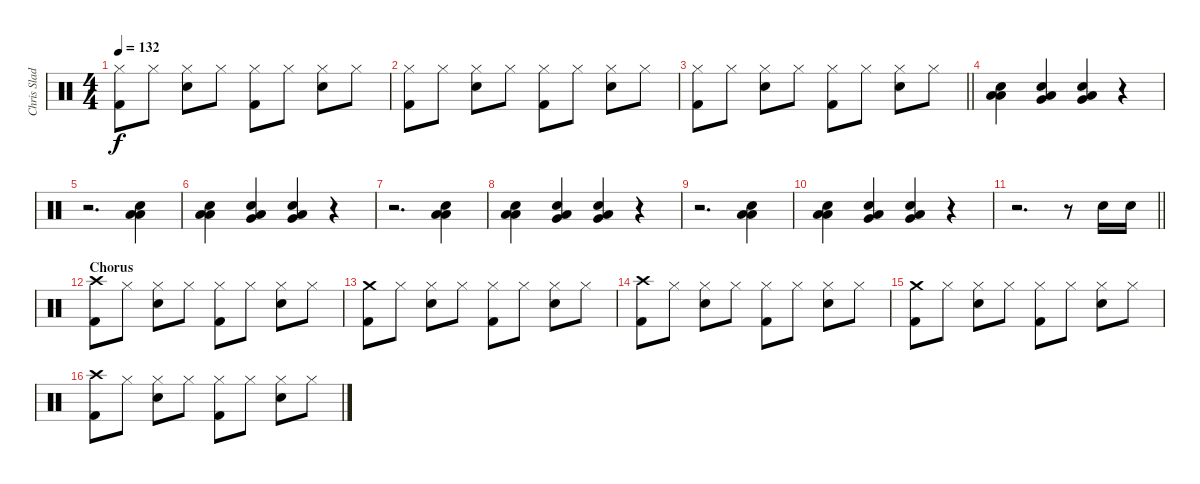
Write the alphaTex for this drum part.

\track ("Chris Slade" "Chris Slad") {instrument percussion}
\staff {score}
\articulation defaults
\ts (4 4)
\tempo 132
\clef neutral
\ks c
("Kick (hit) 2" "Hi-Hat (closed)").8{dy f} "Hi-Hat (closed)".8 ("Snare (hit) 2" "Hi-Hat (closed)").8 "Hi-Hat (closed)".8 ("Kick (hit) 2" "Hi-Hat (closed)").8 "Hi-Hat (closed)".8 ("Snare (hit) 2" "Hi-Hat (closed)").8 "Hi-Hat (closed)".8 |
("Kick (hit) 2" "Hi-Hat (closed)").8 "Hi-Hat (closed)".8 ("Snare (hit) 2" "Hi-Hat (closed)").8 "Hi-Hat (closed)".8 ("Kick (hit) 2" "Hi-Hat (closed)").8 "Hi-Hat (closed)".8 ("Snare (hit) 2" "Hi-Hat (closed)").8 "Hi-Hat (closed)".8 |
\barLineRight lightlight
("Kick (hit) 2" "Hi-Hat (closed)").8 "Hi-Hat (closed)".8 ("Snare (hit) 2" "Hi-Hat (closed)").8 "Hi-Hat (closed)".8 ("Kick (hit) 2" "Hi-Hat (closed)").8 "Hi-Hat (closed)".8 ("Snare (hit) 2" "Hi-Hat (closed)").8 "Hi-Hat (closed)".8 |
("Snare (hit) 2" "Low Tom (hit)" "Low Floor Tom (hit)").4 ("Snare (hit) 2" "Very Low Tom (hit)" "Low Floor Tom (hit)").4 ("Snare (hit) 2" "Very Low Tom (hit)" "Low Floor Tom (hit)").4 r.4 |
r.2{d} ("Snare (hit) 2" "Low Tom (hit)" "Low Floor Tom (hit)").4 |
("Snare (hit) 2" "Low Tom (hit)" "Low Floor Tom (hit)").4 ("Snare (hit) 2" "Very Low Tom (hit)" "Low Floor Tom (hit)").4 ("Snare (hit) 2" "Very Low Tom (hit)" "Low Floor Tom (hit)").4 r.4 |
r.2{d} ("Snare (hit) 2" "Low Tom (hit)" "Low Floor Tom (hit)").4 |
("Snare (hit) 2" "Low Tom (hit)" "Low Floor Tom (hit)").4 ("Snare (hit) 2" "Very Low Tom (hit)" "Low Floor Tom (hit)").4 ("Snare (hit) 2" "Very Low Tom (hit)" "Low Floor Tom (hit)").4 r.4 |
r.2{d} ("Snare (hit) 2" "Low Tom (hit)" "Low Floor Tom (hit)").4 |
("Snare (hit) 2" "Low Tom (hit)" "Low Floor Tom (hit)").4 ("Snare (hit) 2" "Very Low Tom (hit)" "Low Floor Tom (hit)").4 ("Snare (hit) 2" "Very Low Tom (hit)" "Low Floor Tom (hit)").4 r.4 |
\barLineRight lightlight
r.2{d} r.8 "Snare (hit) 2".16 "Snare (hit) 2".16 |
\section ("" "Chorus")
("Kick (hit) 2" "Crash high (hit)").8 "Hi-Hat (closed)".8 ("Snare (hit) 2" "Hi-Hat (closed)").8 "Hi-Hat (closed)".8 ("Kick (hit) 2" "Hi-Hat (closed)").8 "Hi-Hat (closed)".8 ("Snare (hit) 2" "Hi-Hat (closed)").8 "Hi-Hat (closed)".8 |
("Kick (hit) 2" "Crash medium (hit)").8 "Hi-Hat (closed)".8 ("Snare (hit) 2" "Hi-Hat (closed)").8 "Hi-Hat (closed)".8 ("Kick (hit) 2" "Hi-Hat (closed)").8 "Hi-Hat (closed)".8 ("Snare (hit) 2" "Hi-Hat (closed)").8 "Hi-Hat (closed)".8 |
("Kick (hit) 2" "Crash high (hit)").8 "Hi-Hat (closed)".8 ("Snare (hit) 2" "Hi-Hat (closed)").8 "Hi-Hat (closed)".8 ("Kick (hit) 2" "Hi-Hat (closed)").8 "Hi-Hat (closed)".8 ("Snare (hit) 2" "Hi-Hat (closed)").8 "Hi-Hat (closed)".8 |
("Kick (hit) 2" "Crash medium (hit)").8 "Hi-Hat (closed)".8 ("Snare (hit) 2" "Hi-Hat (closed)").8 "Hi-Hat (closed)".8 ("Kick (hit) 2" "Hi-Hat (closed)").8 "Hi-Hat (closed)".8 ("Snare (hit) 2" "Hi-Hat (closed)").8 "Hi-Hat (closed)".8 |
("Kick (hit) 2" "Crash high (hit)").8 "Hi-Hat (closed)".8 ("Snare (hit) 2" "Hi-Hat (closed)").8 "Hi-Hat (closed)".8 ("Kick (hit) 2" "Hi-Hat (closed)").8 "Hi-Hat (closed)".8 ("Snare (hit) 2" "Hi-Hat (closed)").8 "Hi-Hat (closed)".8
